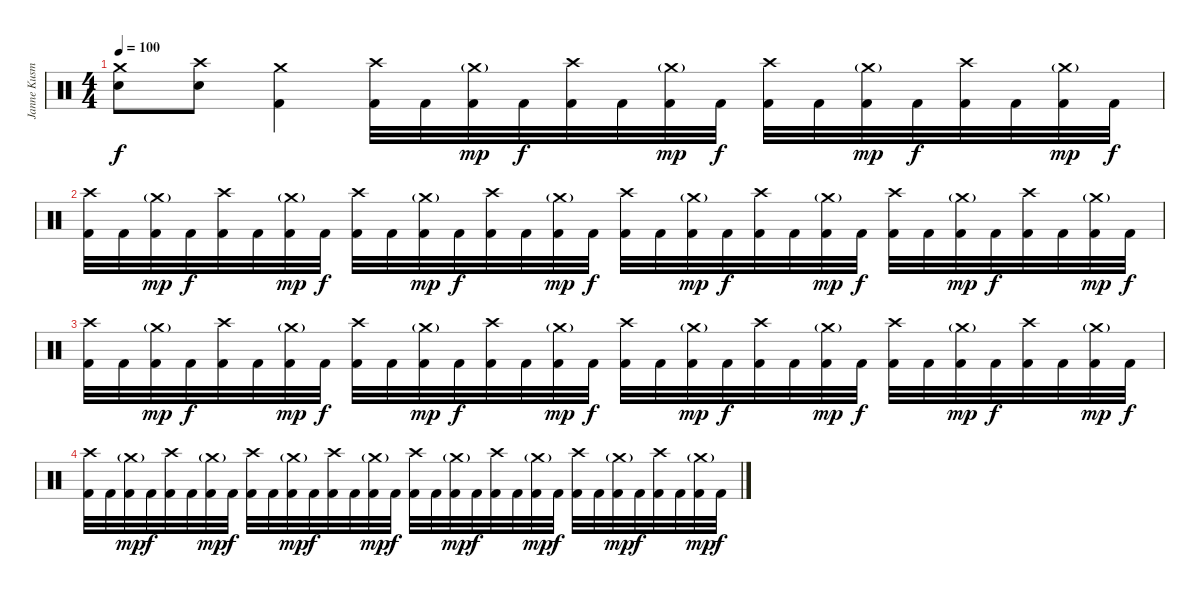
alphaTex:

\track ("Janne Kusmin" "Janne Kusm") {instrument percussion}
\staff {score}
\articulation defaults
\ts (4 4)
\tempo 100
\clef neutral
\ks c
("Crash medium (hit)" "Electric Snare (hit)").8{dy f volume 0} ("Crash high (hit)" "Electric Snare (hit)").8 ("Crash medium (hit)" "Kick (hit) 2").4 ("Crash high (hit)" "Kick (hit) 2").32 "Kick (hit) 2".32 ("Crash medium (hit)"{g} "Kick (hit) 2").32{dy mp} "Kick (hit) 2".32{dy f} ("Crash high (hit)" "Kick (hit) 2").32 "Kick (hit) 2".32 ("Crash medium (hit)"{g} "Kick (hit) 2").32{dy mp} "Kick (hit) 2".32{dy f} ("Crash high (hit)" "Kick (hit) 2").32 "Kick (hit) 2".32 ("Crash medium (hit)"{g} "Kick (hit) 2").32{dy mp} "Kick (hit) 2".32{dy f} ("Crash high (hit)" "Kick (hit) 2").32 "Kick (hit) 2".32 ("Crash medium (hit)"{g} "Kick (hit) 2").32{dy mp} "Kick (hit) 2".32{dy f} |
("Crash high (hit)" "Kick (hit) 2").32 "Kick (hit) 2".32 ("Crash medium (hit)"{g} "Kick (hit) 2").32{dy mp} "Kick (hit) 2".32{dy f} ("Crash high (hit)" "Kick (hit) 2").32 "Kick (hit) 2".32 ("Crash medium (hit)"{g} "Kick (hit) 2").32{dy mp} "Kick (hit) 2".32{dy f} ("Crash high (hit)" "Kick (hit) 2").32 "Kick (hit) 2".32 ("Crash medium (hit)"{g} "Kick (hit) 2").32{dy mp} "Kick (hit) 2".32{dy f} ("Crash high (hit)" "Kick (hit) 2").32 "Kick (hit) 2".32 ("Crash medium (hit)"{g} "Kick (hit) 2").32{dy mp} "Kick (hit) 2".32{dy f} ("Crash high (hit)" "Kick (hit) 2").32 "Kick (hit) 2".32 ("Crash medium (hit)"{g} "Kick (hit) 2").32{dy mp} "Kick (hit) 2".32{dy f} ("Crash high (hit)" "Kick (hit) 2").32 "Kick (hit) 2".32 ("Crash medium (hit)"{g} "Kick (hit) 2").32{dy mp} "Kick (hit) 2".32{dy f} ("Crash high (hit)" "Kick (hit) 2").32 "Kick (hit) 2".32 ("Crash medium (hit)"{g} "Kick (hit) 2").32{dy mp} "Kick (hit) 2".32{dy f} ("Crash high (hit)" "Kick (hit) 2").32 "Kick (hit) 2".32 ("Crash medium (hit)"{g} "Kick (hit) 2").32{dy mp} "Kick (hit) 2".32{dy f} |
("Crash high (hit)" "Kick (hit) 2").32 "Kick (hit) 2".32 ("Crash medium (hit)"{g} "Kick (hit) 2").32{dy mp} "Kick (hit) 2".32{dy f} ("Crash high (hit)" "Kick (hit) 2").32 "Kick (hit) 2".32 ("Crash medium (hit)"{g} "Kick (hit) 2").32{dy mp} "Kick (hit) 2".32{dy f} ("Crash high (hit)" "Kick (hit) 2").32 "Kick (hit) 2".32 ("Crash medium (hit)"{g} "Kick (hit) 2").32{dy mp} "Kick (hit) 2".32{dy f} ("Crash high (hit)" "Kick (hit) 2").32 "Kick (hit) 2".32 ("Crash medium (hit)"{g} "Kick (hit) 2").32{dy mp} "Kick (hit) 2".32{dy f} ("Crash high (hit)" "Kick (hit) 2").32 "Kick (hit) 2".32 ("Crash medium (hit)"{g} "Kick (hit) 2").32{dy mp} "Kick (hit) 2".32{dy f} ("Crash high (hit)" "Kick (hit) 2").32 "Kick (hit) 2".32 ("Crash medium (hit)"{g} "Kick (hit) 2").32{dy mp} "Kick (hit) 2".32{dy f} ("Crash high (hit)" "Kick (hit) 2").32 "Kick (hit) 2".32 ("Crash medium (hit)"{g} "Kick (hit) 2").32{dy mp} "Kick (hit) 2".32{dy f} ("Crash high (hit)" "Kick (hit) 2").32 "Kick (hit) 2".32 ("Crash medium (hit)"{g} "Kick (hit) 2").32{dy mp} "Kick (hit) 2".32{dy f} |
("Crash high (hit)" "Kick (hit) 2").32 "Kick (hit) 2".32 ("Crash medium (hit)"{g} "Kick (hit) 2").32{dy mp} "Kick (hit) 2".32{dy f} ("Crash high (hit)" "Kick (hit) 2").32 "Kick (hit) 2".32 ("Crash medium (hit)"{g} "Kick (hit) 2").32{dy mp} "Kick (hit) 2".32{dy f} ("Crash high (hit)" "Kick (hit) 2").32 "Kick (hit) 2".32 ("Crash medium (hit)"{g} "Kick (hit) 2").32{dy mp} "Kick (hit) 2".32{dy f} ("Crash high (hit)" "Kick (hit) 2").32 "Kick (hit) 2".32 ("Crash medium (hit)"{g} "Kick (hit) 2").32{dy mp} "Kick (hit) 2".32{dy f} ("Crash high (hit)" "Kick (hit) 2").32 "Kick (hit) 2".32 ("Crash medium (hit)"{g} "Kick (hit) 2").32{dy mp} "Kick (hit) 2".32{dy f} ("Crash high (hit)" "Kick (hit) 2").32 "Kick (hit) 2".32 ("Crash medium (hit)"{g} "Kick (hit) 2").32{dy mp} "Kick (hit) 2".32{dy f} ("Crash high (hit)" "Kick (hit) 2").32 "Kick (hit) 2".32 ("Crash medium (hit)"{g} "Kick (hit) 2").32{dy mp} "Kick (hit) 2".32{dy f} ("Crash high (hit)" "Kick (hit) 2").32 "Kick (hit) 2".32 ("Crash medium (hit)"{g} "Kick (hit) 2").32{dy mp} "Kick (hit) 2".32{dy f}
